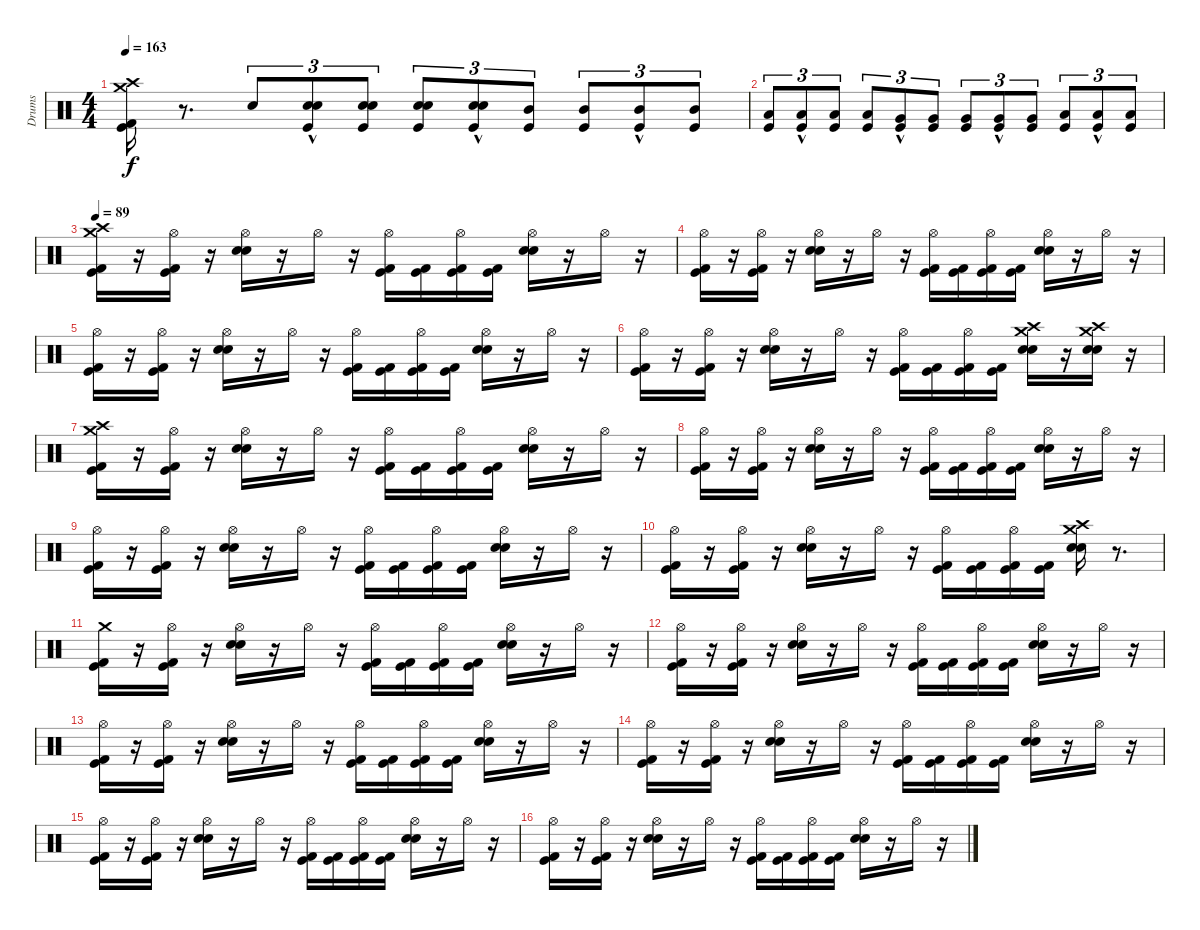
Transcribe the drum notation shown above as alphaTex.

\track ("Drums" "Drums") {instrument percussion}
\staff {score}
\articulation defaults
\ts (4 4)
\tempo 163
\clef neutral
\ks c
("Crash high (hit)" "Crash medium (hit)" "Kick (hit) 2" "Kick (hit)").16{dy f} r.8{d} "Snare (hit)".8{tu (3 2)} ("Kick (hit)"{hac} "Electric Snare (hit)"{hac} "Snare (hit) 2"{hac}).8{tu (3 2)} ("Kick (hit)" "Electric Snare (hit)" "Snare (hit) 2").8{tu (3 2)} ("Kick (hit)" "Electric Snare (hit)" "Snare (hit) 2").8{tu (3 2)} ("Kick (hit)"{hac} "Electric Snare (hit)"{hac} "Snare (hit) 2"{hac}).8{tu (3 2)} ("Kick (hit)" "Mid Tom (hit)").8{tu (3 2)} ("Kick (hit)" "Mid Tom (hit)").8{tu (3 2)} ("Kick (hit)"{hac} "Mid Tom (hit)"{hac}).8{tu (3 2)} ("Kick (hit)" "Mid Tom (hit)").8{tu (3 2)} |
("Kick (hit)" "Low Tom (hit)").8{tu (3 2)} ("Kick (hit)"{hac} "Low Tom (hit)"{hac}).8{tu (3 2)} ("Kick (hit)" "Low Tom (hit)").8{tu (3 2)} ("Kick (hit)" "Low Tom (hit)").8{tu (3 2)} ("Kick (hit)"{hac} "Very Low Tom (hit)"{hac}).8{tu (3 2)} ("Kick (hit)" "Very Low Tom (hit)").8{tu (3 2)} ("Kick (hit)" "Very Low Tom (hit)").8{tu (3 2)} ("Kick (hit)"{hac} "Very Low Tom (hit)"{hac}).8{tu (3 2)} ("Kick (hit)" "Very Low Tom (hit)").8{tu (3 2)} ("Low Floor Tom (hit)" "Kick (hit)").8{tu (3 2)} ("Low Floor Tom (hit)"{hac} "Kick (hit)"{hac}).8{tu (3 2)} ("Low Floor Tom (hit)" "Kick (hit)").8{tu (3 2)} |
\tempo 89
("Crash medium (hit)" "Crash high (hit)" "Kick (hit) 2" "Kick (hit)").16 r.16 ("Hi-Hat (open)" "Kick (hit) 2" "Kick (hit)").16 r.16 ("Hi-Hat (open)" "Electric Snare (hit)" "Snare (hit) 2").16 r.16 "Hi-Hat (open)".16 r.16 ("Hi-Hat (open)" "Kick (hit) 2" "Kick (hit)").16 ("Kick (hit) 2" "Kick (hit)").16 ("Hi-Hat (open)" "Kick (hit) 2" "Kick (hit)").16 ("Kick (hit) 2" "Kick (hit)").16 ("Hi-Hat (open)" "Electric Snare (hit)" "Snare (hit) 2").16 r.16 "Hi-Hat (open)".16 r.16 |
("Hi-Hat (open)" "Kick (hit) 2" "Kick (hit)").16 r.16 ("Hi-Hat (open)" "Kick (hit) 2" "Kick (hit)").16 r.16 ("Hi-Hat (open)" "Electric Snare (hit)" "Snare (hit) 2").16 r.16 "Hi-Hat (open)".16 r.16 ("Hi-Hat (open)" "Kick (hit) 2" "Kick (hit)").16 ("Kick (hit) 2" "Kick (hit)").16 ("Hi-Hat (open)" "Kick (hit) 2" "Kick (hit)").16 ("Kick (hit) 2" "Kick (hit)").16 ("Hi-Hat (open)" "Electric Snare (hit)" "Snare (hit) 2").16 r.16 "Hi-Hat (open)".16 r.16 |
("Hi-Hat (open)" "Kick (hit) 2" "Kick (hit)").16 r.16 ("Hi-Hat (open)" "Kick (hit) 2" "Kick (hit)").16 r.16 ("Hi-Hat (open)" "Electric Snare (hit)" "Snare (hit) 2").16 r.16 "Hi-Hat (open)".16 r.16 ("Hi-Hat (open)" "Kick (hit) 2" "Kick (hit)").16 ("Kick (hit) 2" "Kick (hit)").16 ("Hi-Hat (open)" "Kick (hit) 2" "Kick (hit)").16 ("Kick (hit) 2" "Kick (hit)").16 ("Hi-Hat (open)" "Electric Snare (hit)" "Snare (hit) 2").16 r.16 "Hi-Hat (open)".16 r.16 |
("Hi-Hat (open)" "Kick (hit) 2" "Kick (hit)").16 r.16 ("Hi-Hat (open)" "Kick (hit) 2" "Kick (hit)").16 r.16 ("Hi-Hat (open)" "Electric Snare (hit)" "Snare (hit) 2").16 r.16 "Hi-Hat (open)".16 r.16 ("Hi-Hat (open)" "Kick (hit) 2" "Kick (hit)").16 ("Kick (hit) 2" "Kick (hit)").16 ("Hi-Hat (open)" "Kick (hit) 2" "Kick (hit)").16 ("Kick (hit) 2" "Kick (hit)").16 ("Crash medium (hit)" "Crash high (hit)" "Electric Snare (hit)" "Snare (hit) 2").16 r.16 ("Crash medium (hit)" "Crash high (hit)" "Electric Snare (hit)" "Snare (hit) 2").16 r.16 |
("Crash medium (hit)" "Crash high (hit)" "Kick (hit) 2" "Kick (hit)").16 r.16 ("Hi-Hat (open)" "Kick (hit) 2" "Kick (hit)").16 r.16 ("Hi-Hat (open)" "Electric Snare (hit)" "Snare (hit) 2").16 r.16 "Hi-Hat (open)".16 r.16 ("Hi-Hat (open)" "Kick (hit) 2" "Kick (hit)").16 ("Kick (hit) 2" "Kick (hit)").16 ("Hi-Hat (open)" "Kick (hit) 2" "Kick (hit)").16 ("Kick (hit) 2" "Kick (hit)").16 ("Hi-Hat (open)" "Electric Snare (hit)" "Snare (hit) 2").16 r.16 "Hi-Hat (open)".16 r.16 |
("Hi-Hat (open)" "Kick (hit) 2" "Kick (hit)").16 r.16 ("Hi-Hat (open)" "Kick (hit) 2" "Kick (hit)").16 r.16 ("Hi-Hat (open)" "Electric Snare (hit)" "Snare (hit) 2").16 r.16 "Hi-Hat (open)".16 r.16 ("Hi-Hat (open)" "Kick (hit) 2" "Kick (hit)").16 ("Kick (hit) 2" "Kick (hit)").16 ("Hi-Hat (open)" "Kick (hit) 2" "Kick (hit)").16 ("Kick (hit) 2" "Kick (hit)").16 ("Hi-Hat (open)" "Electric Snare (hit)" "Snare (hit) 2").16 r.16 "Hi-Hat (open)".16 r.16 |
("Hi-Hat (open)" "Kick (hit) 2" "Kick (hit)").16 r.16 ("Hi-Hat (open)" "Kick (hit) 2" "Kick (hit)").16 r.16 ("Hi-Hat (open)" "Electric Snare (hit)" "Snare (hit) 2").16 r.16 "Hi-Hat (open)".16 r.16 ("Hi-Hat (open)" "Kick (hit) 2" "Kick (hit)").16 ("Kick (hit) 2" "Kick (hit)").16 ("Hi-Hat (open)" "Kick (hit) 2" "Kick (hit)").16 ("Kick (hit) 2" "Kick (hit)").16 ("Hi-Hat (open)" "Electric Snare (hit)" "Snare (hit) 2").16 r.16 "Hi-Hat (open)".16 r.16 |
("Hi-Hat (open)" "Kick (hit) 2" "Kick (hit)").16 r.16 ("Hi-Hat (open)" "Kick (hit) 2" "Kick (hit)").16 r.16 ("Hi-Hat (open)" "Electric Snare (hit)" "Snare (hit) 2").16 r.16 "Hi-Hat (open)".16 r.16 ("Hi-Hat (open)" "Kick (hit) 2" "Kick (hit)").16 ("Kick (hit) 2" "Kick (hit)").16 ("Hi-Hat (open)" "Kick (hit) 2" "Kick (hit)").16 ("Kick (hit) 2" "Kick (hit)").16 ("Crash medium (hit)" "Crash high (hit)" "Electric Snare (hit)" "Snare (hit) 2").16 r.8{d} |
("Crash medium (hit)" "Kick (hit) 2" "Kick (hit)").16 r.16 ("Hi-Hat (open)" "Kick (hit) 2" "Kick (hit)").16 r.16 ("Hi-Hat (open)" "Electric Snare (hit)" "Snare (hit) 2").16 r.16 "Hi-Hat (open)".16 r.16 ("Hi-Hat (open)" "Kick (hit) 2" "Kick (hit)").16 ("Kick (hit) 2" "Kick (hit)").16 ("Hi-Hat (open)" "Kick (hit) 2" "Kick (hit)").16 ("Kick (hit) 2" "Kick (hit)").16 ("Hi-Hat (open)" "Electric Snare (hit)" "Snare (hit) 2").16 r.16 "Hi-Hat (open)".16 r.16 |
("Hi-Hat (open)" "Kick (hit) 2" "Kick (hit)").16 r.16 ("Hi-Hat (open)" "Kick (hit) 2" "Kick (hit)").16 r.16 ("Hi-Hat (open)" "Electric Snare (hit)" "Snare (hit) 2").16 r.16 "Hi-Hat (open)".16 r.16 ("Hi-Hat (open)" "Kick (hit) 2" "Kick (hit)").16 ("Kick (hit) 2" "Kick (hit)").16 ("Hi-Hat (open)" "Kick (hit) 2" "Kick (hit)").16 ("Kick (hit) 2" "Kick (hit)").16 ("Hi-Hat (open)" "Electric Snare (hit)" "Snare (hit) 2").16 r.16 "Hi-Hat (open)".16 r.16 |
("Hi-Hat (open)" "Kick (hit) 2" "Kick (hit)").16 r.16 ("Hi-Hat (open)" "Kick (hit) 2" "Kick (hit)").16 r.16 ("Hi-Hat (open)" "Electric Snare (hit)" "Snare (hit) 2").16 r.16 "Hi-Hat (open)".16 r.16 ("Hi-Hat (open)" "Kick (hit) 2" "Kick (hit)").16 ("Kick (hit) 2" "Kick (hit)").16 ("Hi-Hat (open)" "Kick (hit) 2" "Kick (hit)").16 ("Kick (hit) 2" "Kick (hit)").16 ("Hi-Hat (open)" "Electric Snare (hit)" "Snare (hit) 2").16 r.16 "Hi-Hat (open)".16 r.16 |
("Hi-Hat (open)" "Kick (hit) 2" "Kick (hit)").16 r.16 ("Hi-Hat (open)" "Kick (hit) 2" "Kick (hit)").16 r.16 ("Hi-Hat (open)" "Electric Snare (hit)" "Snare (hit) 2").16 r.16 "Hi-Hat (open)".16 r.16 ("Hi-Hat (open)" "Kick (hit) 2" "Kick (hit)").16 ("Kick (hit) 2" "Kick (hit)").16 ("Hi-Hat (open)" "Kick (hit) 2" "Kick (hit)").16 ("Kick (hit) 2" "Kick (hit)").16 ("Hi-Hat (open)" "Electric Snare (hit)" "Snare (hit) 2").16 r.16 "Hi-Hat (open)".16 r.16 |
("Hi-Hat (open)" "Kick (hit) 2" "Kick (hit)").16 r.16 ("Hi-Hat (open)" "Kick (hit) 2" "Kick (hit)").16 r.16 ("Hi-Hat (open)" "Electric Snare (hit)" "Snare (hit) 2").16 r.16 "Hi-Hat (open)".16 r.16 ("Hi-Hat (open)" "Kick (hit) 2" "Kick (hit)").16 ("Kick (hit) 2" "Kick (hit)").16 ("Hi-Hat (open)" "Kick (hit) 2" "Kick (hit)").16 ("Kick (hit) 2" "Kick (hit)").16 ("Hi-Hat (open)" "Electric Snare (hit)" "Snare (hit) 2").16 r.16 "Hi-Hat (open)".16 r.16 |
("Hi-Hat (open)" "Kick (hit) 2" "Kick (hit)").16 r.16 ("Hi-Hat (open)" "Kick (hit) 2" "Kick (hit)").16 r.16 ("Hi-Hat (open)" "Electric Snare (hit)" "Snare (hit) 2").16 r.16 "Hi-Hat (open)".16 r.16 ("Hi-Hat (open)" "Kick (hit) 2" "Kick (hit)").16 ("Kick (hit) 2" "Kick (hit)").16 ("Hi-Hat (open)" "Kick (hit) 2" "Kick (hit)").16 ("Kick (hit) 2" "Kick (hit)").16 ("Hi-Hat (open)" "Electric Snare (hit)" "Snare (hit) 2").16 r.16 "Hi-Hat (open)".16 r.16
